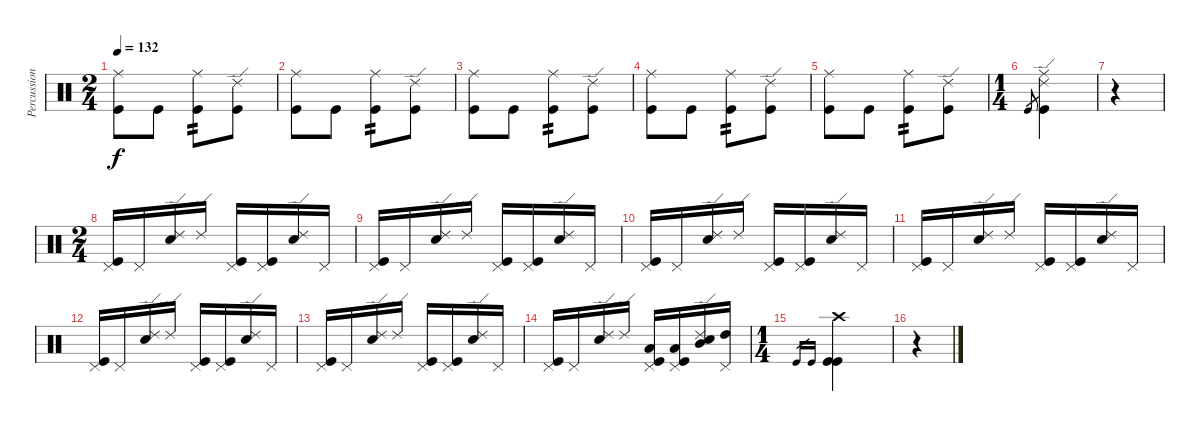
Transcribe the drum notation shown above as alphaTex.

\track ("Percussion" "Percussion") {instrument percussion}
\staff {score}
\articulation defaults
\ts (2 4)
\tempo 132
\clef neutral
\ks c
("Ride (middle)" "Kick (hit)").8{dy f} "Kick (hit)".8 ("Ride (middle)" "Kick (hit)").8{tp 2} ("Ride (edge) 2" "Kick (hit)").8 |
("Ride (middle)" "Kick (hit)").8 "Kick (hit)".8 ("Ride (middle)" "Kick (hit)").8{tp 2} ("Ride (edge) 2" "Kick (hit)").8 |
("Ride (middle)" "Kick (hit)").8 "Kick (hit)".8 ("Ride (middle)" "Kick (hit)").8{tp 2} ("Ride (edge) 2" "Kick (hit)").8 |
("Ride (middle)" "Kick (hit)").8 "Kick (hit)".8 ("Ride (middle)" "Kick (hit)").8{tp 2} ("Ride (edge) 2" "Kick (hit)").8 |
("Ride (middle)" "Kick (hit)").8 "Kick (hit)".8 ("Ride (middle)" "Kick (hit)").8{tp 2} ("Ride (edge) 2" "Kick (hit)").8 |
\ts (1 4)
"Kick (hit)".8{gr} ("Ride (middle)" "Ride (edge) 2" "Kick (hit)").4 |
r.4 |
\ts (2 4)
("Pedal Hi-Hat (hit)" "Kick (hit)").16 "Pedal Hi-Hat (hit)".16 ("Ride (edge) 2" "Electric Snare (hit)").16 "Ride (edge) 2".16 ("Pedal Hi-Hat (hit)" "Kick (hit)").16 ("Pedal Hi-Hat (hit)" "Kick (hit)").16 ("Ride (edge) 2" "Electric Snare (hit)").16 "Pedal Hi-Hat (hit)".16 |
("Pedal Hi-Hat (hit)" "Kick (hit)").16 "Pedal Hi-Hat (hit)".16 ("Ride (edge) 2" "Electric Snare (hit)").16 "Ride (edge) 2".16 ("Pedal Hi-Hat (hit)" "Kick (hit)").16 ("Pedal Hi-Hat (hit)" "Kick (hit)").16 ("Ride (edge) 2" "Electric Snare (hit)").16 "Pedal Hi-Hat (hit)".16 |
("Pedal Hi-Hat (hit)" "Kick (hit)").16 "Pedal Hi-Hat (hit)".16 ("Ride (edge) 2" "Electric Snare (hit)").16 "Ride (edge) 2".16 ("Pedal Hi-Hat (hit)" "Kick (hit)").16 ("Pedal Hi-Hat (hit)" "Kick (hit)").16 ("Ride (edge) 2" "Electric Snare (hit)").16 "Pedal Hi-Hat (hit)".16 |
("Pedal Hi-Hat (hit)" "Kick (hit)").16 "Pedal Hi-Hat (hit)".16 ("Ride (edge) 2" "Electric Snare (hit)").16 "Ride (edge) 2".16 ("Pedal Hi-Hat (hit)" "Kick (hit)").16 ("Pedal Hi-Hat (hit)" "Kick (hit)").16 ("Ride (edge) 2" "Electric Snare (hit)").16 "Pedal Hi-Hat (hit)".16 |
("Pedal Hi-Hat (hit)" "Kick (hit)").16 "Pedal Hi-Hat (hit)".16 ("Ride (edge) 2" "Electric Snare (hit)").16 "Ride (edge) 2".16 ("Pedal Hi-Hat (hit)" "Kick (hit)").16 ("Pedal Hi-Hat (hit)" "Kick (hit)").16 ("Ride (edge) 2" "Electric Snare (hit)").16 "Pedal Hi-Hat (hit)".16 |
("Pedal Hi-Hat (hit)" "Kick (hit)").16 "Pedal Hi-Hat (hit)".16 ("Ride (edge) 2" "Electric Snare (hit)").16 "Ride (edge) 2".16 ("Pedal Hi-Hat (hit)" "Kick (hit)").16 ("Pedal Hi-Hat (hit)" "Kick (hit)").16 ("Ride (edge) 2" "Electric Snare (hit)").16 "Pedal Hi-Hat (hit)".16 |
("Pedal Hi-Hat (hit)" "Kick (hit)").16 "Pedal Hi-Hat (hit)".16 ("Ride (edge) 2" "Electric Snare (hit)").16 "Ride (edge) 2".16 ("Low Tom (hit)" "Pedal Hi-Hat (hit)" "Kick (hit)").16 ("Low Tom (hit)" "Pedal Hi-Hat (hit)" "Kick (hit)").16 ("Mid Tom (hit)" "Ride (edge) 2" "Electric Snare (hit)").16 ("High Tom (hit)" "Pedal Hi-Hat (hit)").16 |
\ts (1 4)
"Kick (hit)".16{gr} "Kick (hit)".16{gr} ("Crash high (hit)" "Kick (hit)" "Kick (hit)").4 |
r.4
